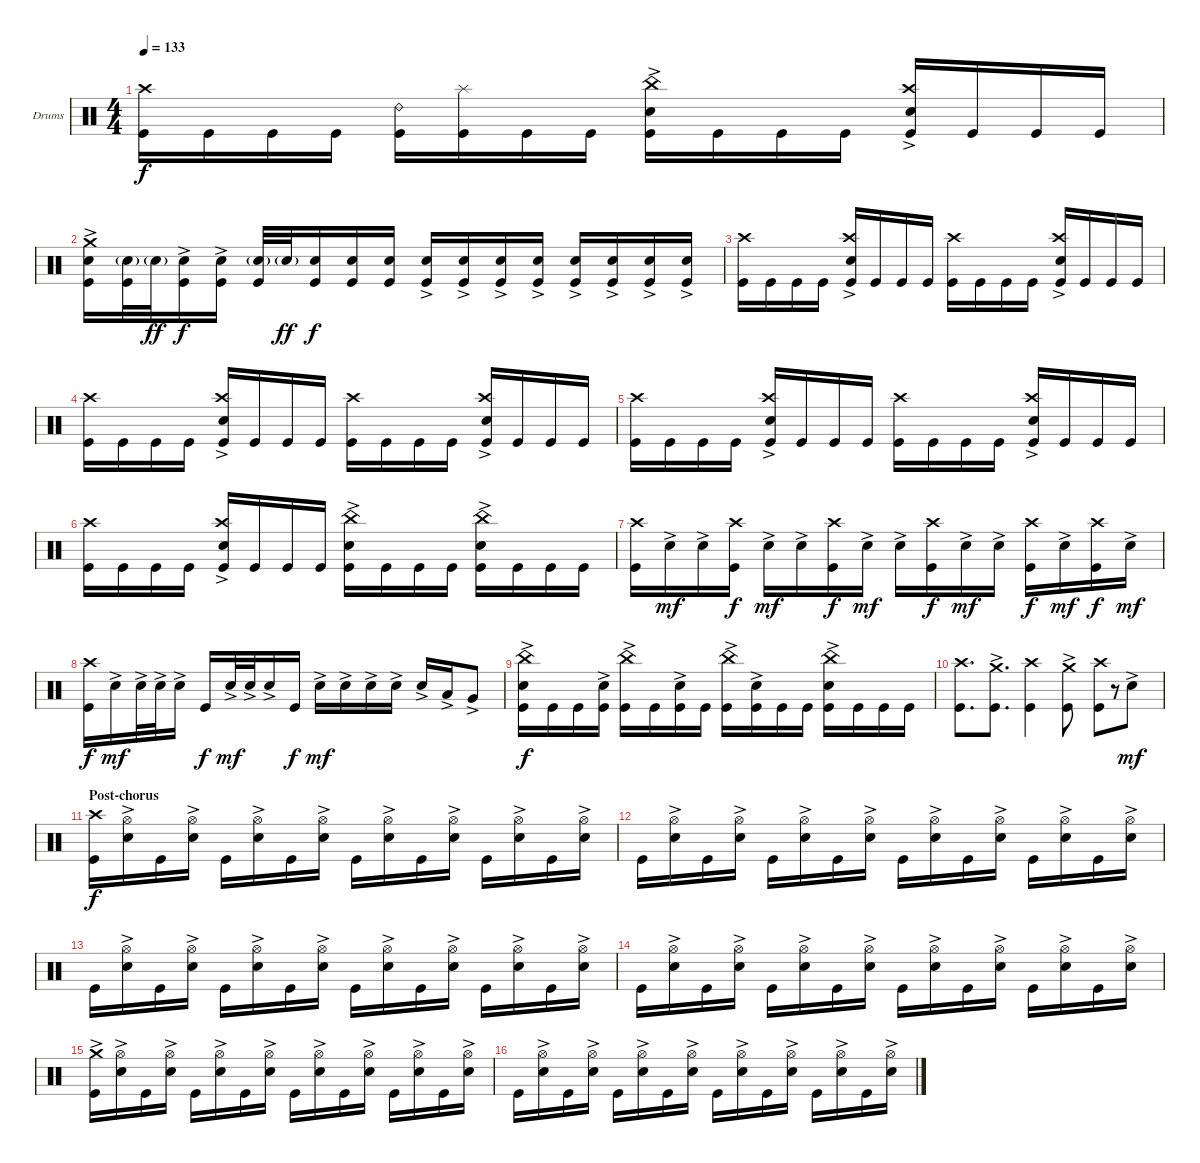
\bracketExtendMode groupsimilarinstruments
\firstSystemTrackNameOrientation horizontal
\otherSystemsTrackNameOrientation horizontal
\track ("Drumkit" "Drums") {instrument percussion}
\staff {score}
\articulation defaults
\ts (4 4)
\tempo 133
\clef neutral
\ks c
("Kick (hit)" "Crash high (hit)").16{dy f} "Kick (hit)".16 "Kick (hit)".16 "Kick (hit)".16 ("Kick (hit)" "Ride (bell) 2").16 ("Kick (hit)" "Splash (hit)").16 "Kick (hit)".16 "Kick (hit)".16 ("Kick (hit)" "Snare (hit) 2"{ac} "China (hit)"{ac}).16 "Kick (hit)".16 "Kick (hit)".16 "Kick (hit)".16 ("Kick (hit)" "Crash high (hit)" "Snare (hit) 2"{ac}).16 "Kick (hit)".16 "Kick (hit)".16 "Kick (hit)".16 |
("Kick (hit)" "Snare (hit) 2"{ac} "Crash medium (hit)"{ac}).16 ("Kick (hit)" "Snare (hit) 2"{g}).32 "Snare (hit) 2"{g}.32{dy ff} ("Kick (hit)" "Snare (hit) 2"{ac}).16{dy f} ("Kick (hit)" "Snare (hit) 2"{ac}).16 ("Kick (hit)" "Snare (hit) 2"{g}).32 "Snare (hit) 2"{g}.32{dy ff} ("Kick (hit)" "Snare (hit) 2").16{dy f} ("Kick (hit)" "Snare (hit) 2").16 ("Kick (hit)" "Snare (hit) 2").16 ("Kick (hit)" "Snare (hit) 2"{ac}).16 ("Kick (hit)" "Snare (hit) 2"{ac}).16 ("Kick (hit)" "Snare (hit) 2"{ac}).16 ("Kick (hit)" "Snare (hit) 2"{ac}).16 ("Kick (hit)" "Snare (hit) 2"{ac}).16 ("Kick (hit)" "Snare (hit) 2"{ac}).16 ("Kick (hit)" "Snare (hit) 2"{ac}).16 ("Kick (hit)" "Snare (hit) 2"{ac}).16 |
("Kick (hit)" "Crash high (hit)").16 "Kick (hit)".16 "Kick (hit)".16 "Kick (hit)".16 ("Kick (hit)" "Crash high (hit)" "Snare (hit) 2"{ac}).16 "Kick (hit)".16 "Kick (hit)".16 "Kick (hit)".16 ("Kick (hit)" "Crash high (hit)").16 "Kick (hit)".16 "Kick (hit)".16 "Kick (hit)".16 ("Kick (hit)" "Crash high (hit)" "Snare (hit) 2"{ac}).16 "Kick (hit)".16 "Kick (hit)".16 "Kick (hit)".16 |
("Kick (hit)" "Crash high (hit)").16 "Kick (hit)".16 "Kick (hit)".16 "Kick (hit)".16 ("Kick (hit)" "Crash high (hit)" "Snare (hit) 2"{ac}).16 "Kick (hit)".16 "Kick (hit)".16 "Kick (hit)".16 ("Kick (hit)" "Crash high (hit)").16 "Kick (hit)".16 "Kick (hit)".16 "Kick (hit)".16 ("Kick (hit)" "Crash high (hit)" "Snare (hit) 2"{ac}).16 "Kick (hit)".16 "Kick (hit)".16 "Kick (hit)".16 |
("Kick (hit)" "Crash high (hit)").16 "Kick (hit)".16 "Kick (hit)".16 "Kick (hit)".16 ("Kick (hit)" "Crash high (hit)" "Snare (hit) 2"{ac}).16 "Kick (hit)".16 "Kick (hit)".16 "Kick (hit)".16 ("Kick (hit)" "Crash high (hit)").16 "Kick (hit)".16 "Kick (hit)".16 "Kick (hit)".16 ("Kick (hit)" "Crash high (hit)" "Snare (hit) 2"{ac}).16 "Kick (hit)".16 "Kick (hit)".16 "Kick (hit)".16 |
("Kick (hit)" "Crash high (hit)").16 "Kick (hit)".16 "Kick (hit)".16 "Kick (hit)".16 ("Kick (hit)" "Crash high (hit)" "Snare (hit) 2"{ac}).16 "Kick (hit)".16 "Kick (hit)".16 "Kick (hit)".16 ("Kick (hit)" "Snare (hit) 2"{ac} "China (hit)"{ac}).16 "Kick (hit)".16 "Kick (hit)".16 "Kick (hit)".16 ("Kick (hit)" "Snare (hit) 2"{ac} "China (hit)"{ac}).16 "Kick (hit)".16 "Kick (hit)".16 "Kick (hit)".16 |
("Kick (hit)" "Crash high (hit)").16 "Snare (hit) 2"{ac}.16{dy mf} "Snare (hit) 2"{ac}.16 ("Kick (hit)" "Crash high (hit)").16{dy f} "Snare (hit) 2"{ac}.16{dy mf} "Snare (hit) 2"{ac}.16 ("Kick (hit)" "Crash high (hit)").16{dy f} "Snare (hit) 2"{ac}.16{dy mf} "Snare (hit) 2"{ac}.16 ("Kick (hit)" "Crash high (hit)").16{dy f} "Snare (hit) 2"{ac}.16{dy mf} "Snare (hit) 2"{ac}.16 ("Kick (hit)" "Crash high (hit)").16{dy f} "Snare (hit) 2"{ac}.16{dy mf} ("Kick (hit)" "Crash high (hit)").16{dy f} "Snare (hit) 2"{ac}.16{dy mf} |
("Kick (hit)" "Crash high (hit)").16{dy f} "Snare (hit) 2"{ac}.16{dy mf} "Snare (hit) 2"{ac}.32 "Snare (hit) 2"{ac}.32 "Snare (hit) 2"{ac}.16 "Kick (hit)".16{dy f} "Snare (hit) 2"{ac}.32{dy mf} "Snare (hit) 2"{ac}.32 "Snare (hit) 2"{ac}.16 "Kick (hit)".16{dy f} "Snare (hit) 2"{ac}.16{dy mf} "Snare (hit) 2"{ac}.16 "Snare (hit) 2"{ac}.16 "Snare (hit) 2"{ac}.16 "Snare (hit) 2"{ac}.16 "Low Tom (hit)"{ac}.16 "Very Low Tom (hit)"{ac}.8 |
("Kick (hit)" "China (hit)"{ac} "Snare (hit) 2"{ac}).16{dy f} "Kick (hit)".16 "Kick (hit)".16 ("Kick (hit)" "Snare (hit) 2"{ac}).16 ("Kick (hit)" "China (hit)"{ac}).16 "Kick (hit)".16 ("Kick (hit)" "Snare (hit) 2"{ac}).16 "Kick (hit)".16 ("Kick (hit)" "China (hit)"{ac}).16 ("Kick (hit)" "Snare (hit) 2"{ac}).16 "Kick (hit)".16 "Kick (hit)".16 ("Kick (hit)" "China (hit)"{ac} "Snare (hit) 2"{ac}).16 "Kick (hit)".16 "Kick (hit)".16 "Kick (hit)".16 |
("Kick (hit)" "Crash high (hit)").8{d} ("Kick (hit)" "Crash medium (hit)"{ac}).8{d} ("Kick (hit)" "Crash high (hit)").4 ("Kick (hit)" "Crash medium (hit)"{ac}).8 ("Kick (hit)" "Crash high (hit)").8 r.8{gr} "Snare (hit) 2"{ac}.8{dy mf} |
\section ("" "Post-chorus")
("Crash high (hit)" "Kick (hit)").16{dy f} ("Snare (hit) 2"{ac} "Hi-Hat (open)").16 "Kick (hit)".16 ("Snare (hit) 2"{ac} "Hi-Hat (open)").16 "Kick (hit)".16 ("Snare (hit) 2"{ac} "Hi-Hat (open)").16 "Kick (hit)".16 ("Snare (hit) 2"{ac} "Hi-Hat (open)").16 "Kick (hit)".16 ("Snare (hit) 2"{ac} "Hi-Hat (open)").16 "Kick (hit)".16 ("Snare (hit) 2"{ac} "Hi-Hat (open)").16 "Kick (hit)".16 ("Snare (hit) 2"{ac} "Hi-Hat (open)").16 "Kick (hit)".16 ("Snare (hit) 2"{ac} "Hi-Hat (open)").16 |
"Kick (hit)".16 ("Snare (hit) 2"{ac} "Hi-Hat (open)").16 "Kick (hit)".16 ("Snare (hit) 2"{ac} "Hi-Hat (open)").16 "Kick (hit)".16 ("Snare (hit) 2"{ac} "Hi-Hat (open)").16 "Kick (hit)".16 ("Snare (hit) 2"{ac} "Hi-Hat (open)").16 "Kick (hit)".16 ("Snare (hit) 2"{ac} "Hi-Hat (open)").16 "Kick (hit)".16 ("Snare (hit) 2"{ac} "Hi-Hat (open)").16 "Kick (hit)".16 ("Snare (hit) 2"{ac} "Hi-Hat (open)").16 "Kick (hit)".16 ("Snare (hit) 2"{ac} "Hi-Hat (open)").16 |
"Kick (hit)".16 ("Snare (hit) 2"{ac} "Hi-Hat (open)").16 "Kick (hit)".16 ("Snare (hit) 2"{ac} "Hi-Hat (open)").16 "Kick (hit)".16 ("Snare (hit) 2"{ac} "Hi-Hat (open)").16 "Kick (hit)".16 ("Snare (hit) 2"{ac} "Hi-Hat (open)").16 "Kick (hit)".16 ("Snare (hit) 2"{ac} "Hi-Hat (open)").16 "Kick (hit)".16 ("Snare (hit) 2"{ac} "Hi-Hat (open)").16 "Kick (hit)".16 ("Snare (hit) 2"{ac} "Hi-Hat (open)").16 "Kick (hit)".16 ("Snare (hit) 2"{ac} "Hi-Hat (open)").16 |
"Kick (hit)".16 ("Snare (hit) 2"{ac} "Hi-Hat (open)").16 "Kick (hit)".16 ("Snare (hit) 2"{ac} "Hi-Hat (open)").16 "Kick (hit)".16 ("Snare (hit) 2"{ac} "Hi-Hat (open)").16 "Kick (hit)".16 ("Snare (hit) 2"{ac} "Hi-Hat (open)").16 "Kick (hit)".16 ("Snare (hit) 2"{ac} "Hi-Hat (open)").16 "Kick (hit)".16 ("Snare (hit) 2"{ac} "Hi-Hat (open)").16 "Kick (hit)".16 ("Snare (hit) 2"{ac} "Hi-Hat (open)").16 "Kick (hit)".16 ("Snare (hit) 2"{ac} "Hi-Hat (open)").16 |
("Kick (hit)" "Crash medium (hit)"{ac}).16 ("Snare (hit) 2"{ac} "Hi-Hat (open)").16 "Kick (hit)".16 ("Snare (hit) 2"{ac} "Hi-Hat (open)").16 "Kick (hit)".16 ("Snare (hit) 2"{ac} "Hi-Hat (open)").16 "Kick (hit)".16 ("Snare (hit) 2"{ac} "Hi-Hat (open)").16 "Kick (hit)".16 ("Snare (hit) 2"{ac} "Hi-Hat (open)").16 "Kick (hit)".16 ("Snare (hit) 2"{ac} "Hi-Hat (open)").16 "Kick (hit)".16 ("Snare (hit) 2"{ac} "Hi-Hat (open)").16 "Kick (hit)".16 ("Snare (hit) 2"{ac} "Hi-Hat (open)").16 |
"Kick (hit)".16 ("Snare (hit) 2"{ac} "Hi-Hat (open)").16 "Kick (hit)".16 ("Snare (hit) 2"{ac} "Hi-Hat (open)").16 "Kick (hit)".16 ("Snare (hit) 2"{ac} "Hi-Hat (open)").16 "Kick (hit)".16 ("Snare (hit) 2"{ac} "Hi-Hat (open)").16 "Kick (hit)".16 ("Snare (hit) 2"{ac} "Hi-Hat (open)").16 "Kick (hit)".16 ("Snare (hit) 2"{ac} "Hi-Hat (open)").16 "Kick (hit)".16 ("Snare (hit) 2"{ac} "Hi-Hat (open)").16 "Kick (hit)".16 ("Snare (hit) 2"{ac} "Hi-Hat (open)").16
